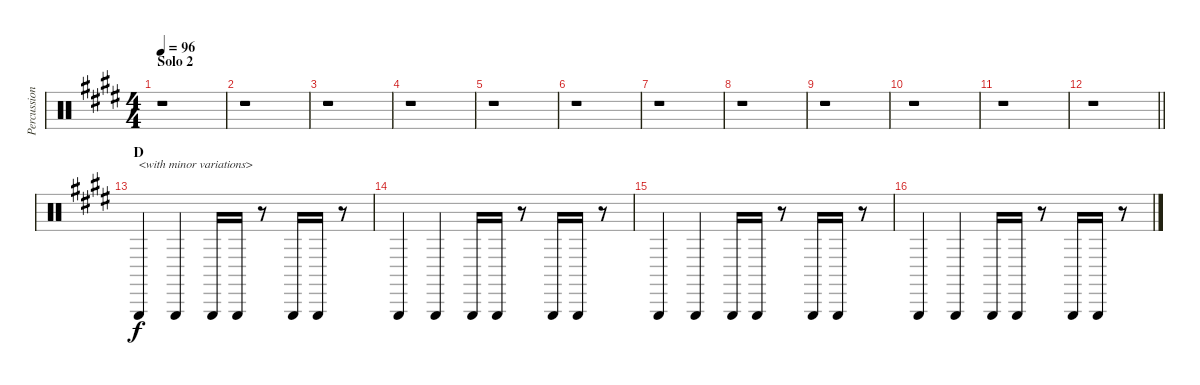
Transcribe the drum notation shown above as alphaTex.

\track ("Percussion" "Percussion") {instrument percussion}
\staff {score}
\articulation defaults
\ts (4 4)
\section ("" "Solo 2")
\tempo 96
\clef neutral
\ks e
r.1{dy f} |
r.1 |
r.1 |
r.1 |
r.1 |
r.1 |
r.1 |
r.1 |
r.1 |
r.1 |
r.1 |
\barLineRight lightlight
r.1 |
\section ("" "D")
"Triangle (hit)".4{txt "<with minor variations>"} "Triangle (hit)".4 "Triangle (hit)".16 "Triangle (hit)".16 r.8 "Triangle (hit)".16 "Triangle (hit)".16 r.8 |
"Triangle (hit)".4 "Triangle (hit)".4 "Triangle (hit)".16 "Triangle (hit)".16 r.8 "Triangle (hit)".16 "Triangle (hit)".16 r.8 |
"Triangle (hit)".4 "Triangle (hit)".4 "Triangle (hit)".16 "Triangle (hit)".16 r.8 "Triangle (hit)".16 "Triangle (hit)".16 r.8 |
"Triangle (hit)".4 "Triangle (hit)".4 "Triangle (hit)".16 "Triangle (hit)".16 r.8 "Triangle (hit)".16 "Triangle (hit)".16 r.8
